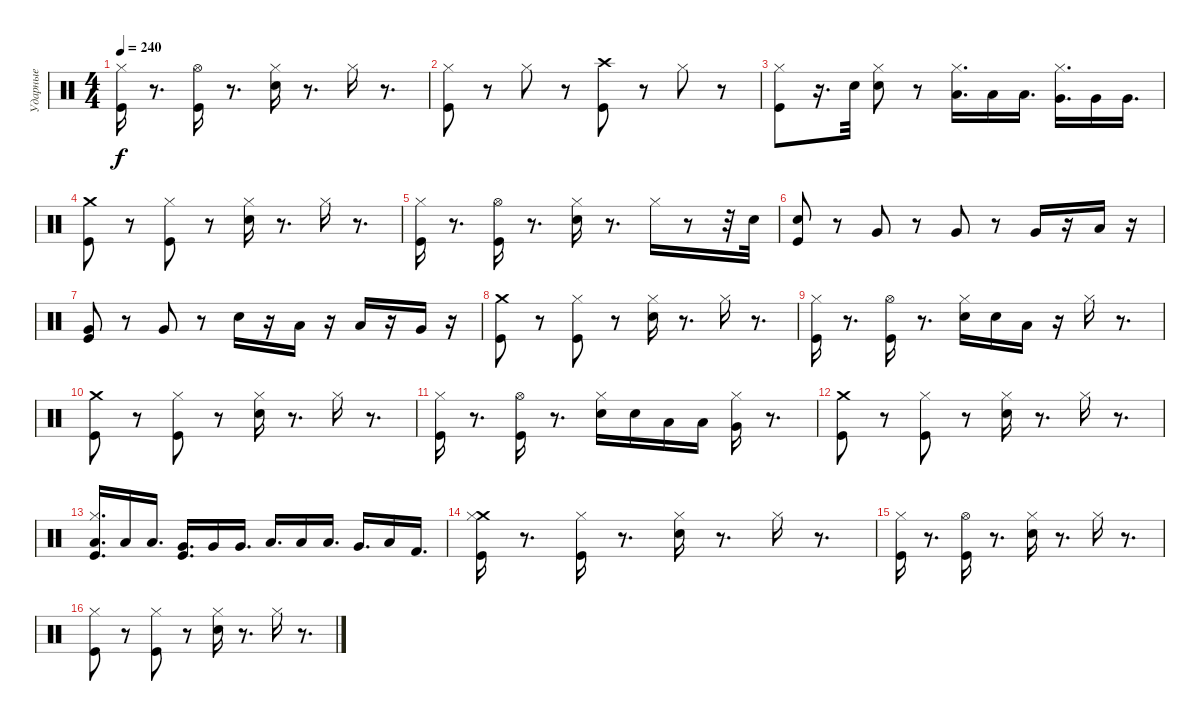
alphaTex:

\track ("Ударные" "Ударные") {instrument percussion}
\staff {score}
\articulation defaults
\ts (4 4)
\tempo 240
\clef neutral
\ks c
("Kick (hit)" "Hi-Hat (closed)").16{dy f} r.8{d} ("Kick (hit)" "Hi-Hat (open)").16 r.8{d} ("Snare (hit) 2" "Hi-Hat (closed)").16 r.8{d} "Hi-Hat (closed)".16 r.8{d} |
("Hi-Hat (closed)" "Kick (hit)").8 r.8 "Hi-Hat (closed)".8 r.8 ("Kick (hit)" "Crash high (hit)").8 r.8 "Hi-Hat (closed)".8 r.8 |
("Kick (hit)" "Hi-Hat (closed)").8 r.16{d} "Snare (hit) 2".32 ("Snare (hit) 2" "Hi-Hat (closed)").8 r.8 ("Low Floor Tom (hit)" "Hi-Hat (closed)").16{d} "Low Floor Tom (hit)".16 "Low Floor Tom (hit)".16{d} ("Very Low Tom (hit)" "Hi-Hat (closed)").16{d} "Very Low Tom (hit)".16 "Very Low Tom (hit)".16{d} |
("Crash medium (hit)" "Kick (hit)").8 r.8 ("Kick (hit)" "Hi-Hat (closed)").8 r.8 ("Snare (hit) 2" "Hi-Hat (closed)").16 r.8{d} "Hi-Hat (closed)".16 r.8{d} |
("Kick (hit)" "Hi-Hat (closed)").16 r.8{d} ("Kick (hit)" "Hi-Hat (open)").16 r.8{d} ("Snare (hit) 2" "Hi-Hat (closed)").16 r.8{d} "Hi-Hat (closed)".16 r.8 r.32 "Snare (hit) 2".32 |
("Kick (hit)" "Snare (hit) 2").8 r.8 "Very Low Tom (hit)".8 r.8 "Very Low Tom (hit)".8 r.8 "Very Low Tom (hit)".16 r.16 "Low Tom (hit)".16 r.16 |
("Very Low Tom (hit)" "Kick (hit)").8 r.8 "Very Low Tom (hit)".8 r.8 "Snare (hit) 2".16 r.16 "Low Tom (hit)".16 r.16 "Low Tom (hit)".16 r.16 "Very Low Tom (hit)".16 r.16 |
("Crash medium (hit)" "Kick (hit)").8 r.8 ("Kick (hit)" "Hi-Hat (closed)").8 r.8 ("Snare (hit) 2" "Hi-Hat (closed)").16 r.8{d} "Hi-Hat (closed)".16 r.8{d} |
("Kick (hit)" "Hi-Hat (closed)").16 r.8{d} ("Kick (hit)" "Hi-Hat (open)").16 r.8{d} ("Snare (hit) 2" "Hi-Hat (closed)").16 "Snare (hit) 2".16 "Low Tom (hit)".16 r.16 "Hi-Hat (closed)".16 r.8{d} |
("Crash medium (hit)" "Kick (hit)").8 r.8 ("Kick (hit)" "Hi-Hat (closed)").8 r.8 ("Snare (hit) 2" "Hi-Hat (closed)").16 r.8{d} "Hi-Hat (closed)".16 r.8{d} |
("Kick (hit)" "Hi-Hat (closed)").16 r.8{d} ("Kick (hit)" "Hi-Hat (open)").16 r.8{d} ("Snare (hit) 2" "Hi-Hat (closed)").16 "Snare (hit) 2".16 "Low Tom (hit)".16 "Low Tom (hit)".16 ("Very Low Tom (hit)" "Hi-Hat (closed)").16 r.8{d} |
("Crash medium (hit)" "Kick (hit)").8 r.8 ("Kick (hit)" "Hi-Hat (closed)").8 r.8 ("Snare (hit) 2" "Hi-Hat (closed)").16 r.8{d} "Hi-Hat (closed)".16 r.8{d} |
("Low Floor Tom (hit)" "Kick (hit)" "Hi-Hat (closed)").16{d} "Low Floor Tom (hit)".16 "Low Floor Tom (hit)".16{d} ("Very Low Tom (hit)" "Kick (hit)").16{d} "Very Low Tom (hit)".16 "Very Low Tom (hit)".16{d} "Low Tom (hit)".16{d} "Low Tom (hit)".16 "Low Tom (hit)".16{d} "Very Low Tom (hit)".16{d} "Low Floor Tom (hit)".16 "Kick (hit) 2".16{d} |
("Kick (hit)" "Crash medium (hit)" "Hi-Hat (closed)").16 r.8{d} ("Kick (hit)" "Hi-Hat (closed)").16 r.8{d} ("Snare (hit) 2" "Hi-Hat (closed)").16 r.8{d} "Hi-Hat (closed)".16 r.8{d} |
("Kick (hit)" "Hi-Hat (closed)").16 r.8{d} ("Kick (hit)" "Hi-Hat (open)").16 r.8{d} ("Snare (hit) 2" "Hi-Hat (closed)").16 r.8{d} "Hi-Hat (closed)".16 r.8{d} |
("Hi-Hat (closed)" "Kick (hit)").8 r.8 ("Kick (hit)" "Hi-Hat (closed)").8 r.8 ("Snare (hit) 2" "Hi-Hat (closed)").16 r.8{d} "Hi-Hat (closed)".16 r.8{d}
